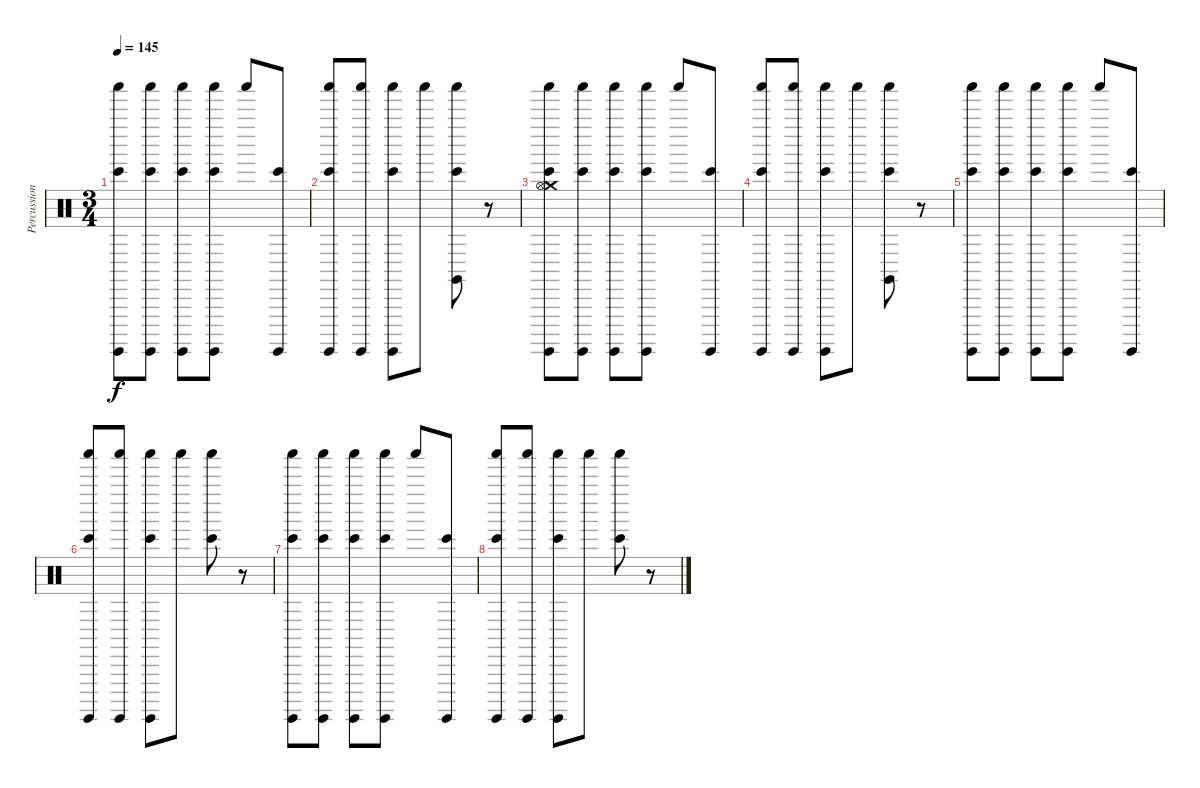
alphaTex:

\track ("Percussion" "Percussion") {instrument percussion}
\staff {score}
\articulation defaults
\ts (3 4)
\tempo 145
\clef neutral
\ks c
("Shaker (hit)" "Surdo (hit)" "Bongo High (hit)").8{dy f} ("Shaker (hit)" "Surdo (hit)" "Bongo High (hit)").8 ("Shaker (hit)" "Surdo (hit)" "Bongo High (hit)").8 ("Shaker (hit)" "Surdo (hit)" "Bongo High (hit)").8 "Shaker (hit)".8 ("Surdo (hit)" "Bongo High (hit)").8 |
("Shaker (hit)" "Surdo (hit)" "Bongo High (hit)").8 ("Shaker (hit)" "Surdo (hit)").8 ("Shaker (hit)" "Surdo (hit)" "Bongo High (hit)").8 "Shaker (hit)".8 ("Shaker (hit)" "Bongo High (hit)" "Claves (hit)").8 r.8 |
("Shaker (hit)" "Surdo (hit)" "Bongo High (hit)" "Crash medium (hit)" "Hi-Hat (open)").8 ("Shaker (hit)" "Surdo (hit)" "Bongo High (hit)").8 ("Shaker (hit)" "Surdo (hit)" "Bongo High (hit)").8 ("Shaker (hit)" "Surdo (hit)" "Bongo High (hit)").8 "Shaker (hit)".8 ("Surdo (hit)" "Bongo High (hit)").8 |
("Shaker (hit)" "Surdo (hit)" "Bongo High (hit)").8 ("Shaker (hit)" "Surdo (hit)").8 ("Shaker (hit)" "Surdo (hit)" "Bongo High (hit)").8 "Shaker (hit)".8 ("Shaker (hit)" "Bongo High (hit)" "Claves (hit)").8 r.8 |
("Shaker (hit)" "Surdo (hit)" "Bongo High (hit)").8 ("Shaker (hit)" "Surdo (hit)" "Bongo High (hit)").8 ("Shaker (hit)" "Surdo (hit)" "Bongo High (hit)").8 ("Shaker (hit)" "Surdo (hit)" "Bongo High (hit)").8 "Shaker (hit)".8 ("Surdo (hit)" "Bongo High (hit)").8 |
("Shaker (hit)" "Surdo (hit)" "Bongo High (hit)").8 ("Shaker (hit)" "Surdo (hit)").8 ("Shaker (hit)" "Surdo (hit)" "Bongo High (hit)").8 "Shaker (hit)".8 ("Shaker (hit)" "Bongo High (hit)").8 r.8 |
("Shaker (hit)" "Surdo (hit)" "Bongo High (hit)").8 ("Shaker (hit)" "Surdo (hit)" "Bongo High (hit)").8 ("Shaker (hit)" "Surdo (hit)" "Bongo High (hit)").8 ("Shaker (hit)" "Surdo (hit)" "Bongo High (hit)").8 "Shaker (hit)".8 ("Surdo (hit)" "Bongo High (hit)").8 |
("Shaker (hit)" "Surdo (hit)" "Bongo High (hit)").8 ("Shaker (hit)" "Surdo (hit)").8 ("Shaker (hit)" "Surdo (hit)" "Bongo High (hit)").8 "Shaker (hit)".8 ("Shaker (hit)" "Bongo High (hit)").8 r.8
